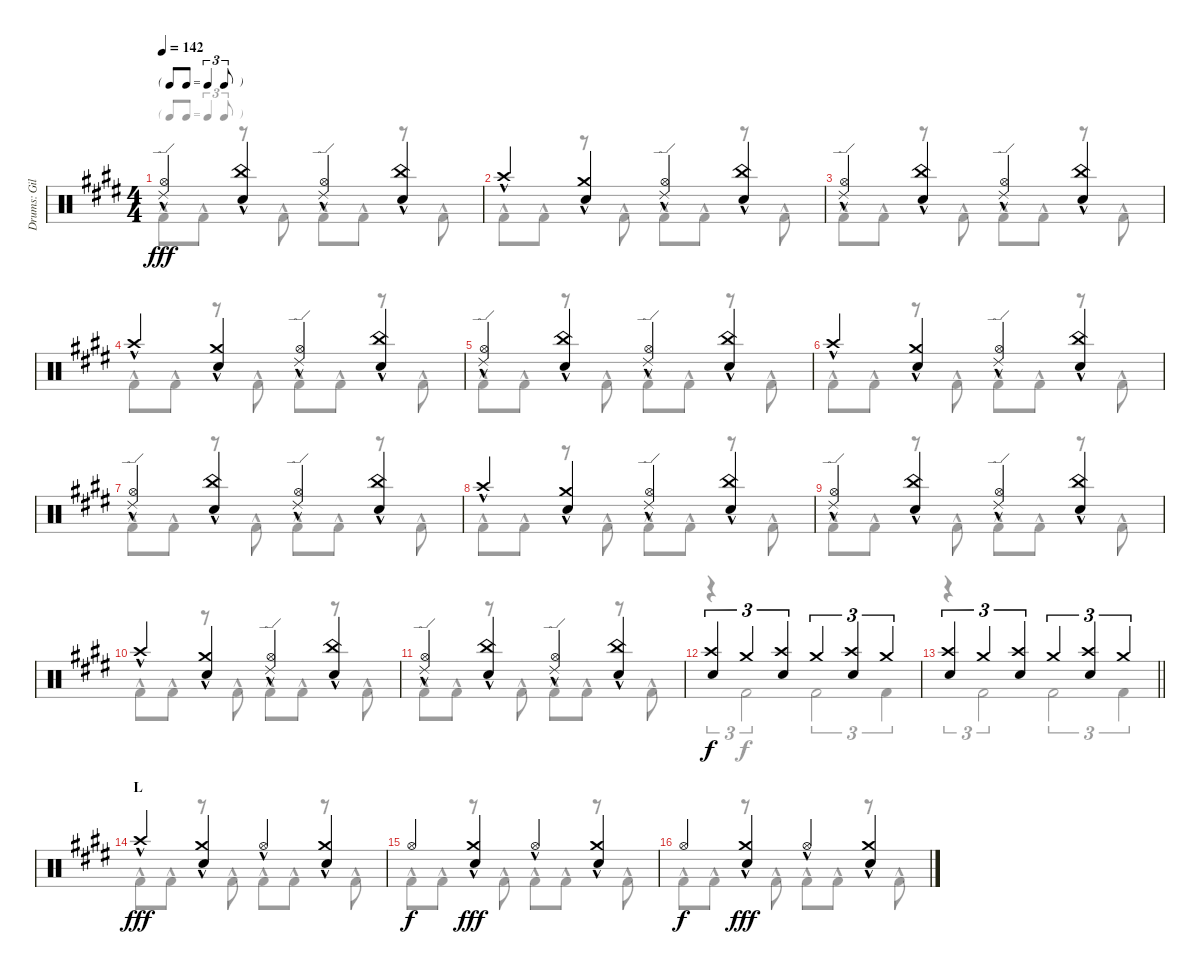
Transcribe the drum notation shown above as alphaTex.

\track ("Drums: Gil" "Drums: Gil") {instrument percussion}
\staff {score}
\articulation defaults
\voice
\ts (4 4)
\tf triplet8th
\tempo 142
\clef neutral
\ks e
("Ride (edge) 2"{hac} "Hi-Hat (open)"{hac}).4{dy fff} ("China (hit)"{hac} "Snare (hit) 2"{hac}).4 ("Ride (edge) 2"{hac} "Hi-Hat (open)"{hac}).4 ("China (hit)"{hac} "Snare (hit) 2"{hac}).4 |
"Crash high (hit)"{hac}.4 ("Crash medium (hit)"{hac} "Snare (hit) 2"{hac}).4 ("Ride (edge) 2"{hac} "Hi-Hat (open)"{hac}).4 ("China (hit)"{hac} "Snare (hit) 2"{hac}).4 |
("Ride (edge) 2"{hac} "Hi-Hat (open)"{hac}).4 ("China (hit)"{hac} "Snare (hit) 2"{hac}).4 ("Ride (edge) 2"{hac} "Hi-Hat (open)"{hac}).4 ("China (hit)"{hac} "Snare (hit) 2"{hac}).4 |
"Crash high (hit)"{hac}.4 ("Crash medium (hit)"{hac} "Snare (hit) 2"{hac}).4 ("Ride (edge) 2"{hac} "Hi-Hat (open)"{hac}).4 ("China (hit)"{hac} "Snare (hit) 2"{hac}).4 |
("Ride (edge) 2"{hac} "Hi-Hat (open)"{hac}).4 ("China (hit)"{hac} "Snare (hit) 2"{hac}).4 ("Ride (edge) 2"{hac} "Hi-Hat (open)"{hac}).4 ("China (hit)"{hac} "Snare (hit) 2"{hac}).4 |
"Crash high (hit)"{hac}.4 ("Crash medium (hit)"{hac} "Snare (hit) 2"{hac}).4 ("Ride (edge) 2"{hac} "Hi-Hat (open)"{hac}).4 ("China (hit)"{hac} "Snare (hit) 2"{hac}).4 |
("Ride (edge) 2"{hac} "Hi-Hat (open)"{hac}).4 ("China (hit)"{hac} "Snare (hit) 2"{hac}).4 ("Ride (edge) 2"{hac} "Hi-Hat (open)"{hac}).4 ("China (hit)"{hac} "Snare (hit) 2"{hac}).4 |
"Crash high (hit)"{hac}.4 ("Crash medium (hit)"{hac} "Snare (hit) 2"{hac}).4 ("Ride (edge) 2"{hac} "Hi-Hat (open)"{hac}).4 ("China (hit)"{hac} "Snare (hit) 2"{hac}).4 |
("Ride (edge) 2"{hac} "Hi-Hat (open)"{hac}).4 ("China (hit)"{hac} "Snare (hit) 2"{hac}).4 ("Ride (edge) 2"{hac} "Hi-Hat (open)"{hac}).4 ("China (hit)"{hac} "Snare (hit) 2"{hac}).4 |
"Crash high (hit)"{hac}.4 ("Crash medium (hit)"{hac} "Snare (hit) 2"{hac}).4 ("Ride (edge) 2"{hac} "Hi-Hat (open)"{hac}).4 ("China (hit)"{hac} "Snare (hit) 2"{hac}).4 |
("Ride (edge) 2"{hac} "Hi-Hat (open)"{hac}).4 ("China (hit)"{hac} "Snare (hit) 2"{hac}).4 ("Ride (edge) 2"{hac} "Hi-Hat (open)"{hac}).4 ("China (hit)"{hac} "Snare (hit) 2"{hac}).4 |
("Crash high (hit)" "Snare (hit) 2").4{tu (3 2) dy f} "Crash medium (hit)".4{tu (3 2) beam merge} ("Crash high (hit)" "Snare (hit) 2").4{tu (3 2)} "Crash medium (hit)".4{tu (3 2)} ("Crash high (hit)" "Snare (hit) 2").4{tu (3 2)} "Crash medium (hit)".4{tu (3 2)} |
\barLineRight lightlight
("Crash high (hit)" "Snare (hit) 2").4{tu (3 2)} "Crash medium (hit)".4{tu (3 2) beam merge} ("Crash high (hit)" "Snare (hit) 2").4{tu (3 2)} "Crash medium (hit)".4{tu (3 2)} ("Crash high (hit)" "Snare (hit) 2").4{tu (3 2)} "Crash medium (hit)".4{tu (3 2)} |
\section ("" "L")
"Crash high (hit)"{hac}.4{dy fff beam merge} ("Crash medium (hit)"{hac} "Snare (hit) 2"{hac}).4 "Hi-Hat (open)"{hac}.4{beam merge} ("Crash medium (hit)"{hac} "Snare (hit) 2"{hac}).4 |
"Hi-Hat (open)".4{dy f beam merge} ("Crash medium (hit)"{hac} "Snare (hit) 2"{hac}).4{dy fff} "Hi-Hat (open)"{hac}.4{beam merge} ("Crash medium (hit)"{hac} "Snare (hit) 2"{hac}).4 |
"Hi-Hat (open)".4{dy f beam merge} ("Crash medium (hit)"{hac} "Snare (hit) 2"{hac}).4{dy fff} "Hi-Hat (open)"{hac}.4{beam merge} ("Crash medium (hit)"{hac} "Snare (hit) 2"{hac}).4
\voice
\clef neutral
\ottava regular
\simile none
\ks e "Kick (hit) 2"{hac}.8{dy fff} "Kick (hit) 2"{hac}.8
r.8 "Kick (hit) 2"{hac}.8 "Kick (hit) 2"{hac}.8 "Kick (hit) 2"{hac}.8 r.8 "Kick (hit) 2"{hac}.8 |
"Kick (hit) 2"{hac}.8 "Kick (hit) 2"{hac}.8 r.8 "Kick (hit) 2"{hac}.8 "Kick (hit) 2"{hac}.8 "Kick (hit) 2"{hac}.8 r.8 "Kick (hit) 2"{hac}.8 |
"Kick (hit) 2"{hac}.8 "Kick (hit) 2"{hac}.8 r.8 "Kick (hit) 2"{hac}.8 "Kick (hit) 2"{hac}.8 "Kick (hit) 2"{hac}.8 r.8 "Kick (hit) 2"{hac}.8 |
"Kick (hit) 2"{hac}.8 "Kick (hit) 2"{hac}.8 r.8 "Kick (hit) 2"{hac}.8 "Kick (hit) 2"{hac}.8 "Kick (hit) 2"{hac}.8 r.8 "Kick (hit) 2"{hac}.8 |
"Kick (hit) 2"{hac}.8 "Kick (hit) 2"{hac}.8 r.8 "Kick (hit) 2"{hac}.8 "Kick (hit) 2"{hac}.8 "Kick (hit) 2"{hac}.8 r.8 "Kick (hit) 2"{hac}.8 |
"Kick (hit) 2"{hac}.8 "Kick (hit) 2"{hac}.8 r.8 "Kick (hit) 2"{hac}.8 "Kick (hit) 2"{hac}.8 "Kick (hit) 2"{hac}.8 r.8 "Kick (hit) 2"{hac}.8 |
"Kick (hit) 2"{hac}.8 "Kick (hit) 2"{hac}.8 r.8 "Kick (hit) 2"{hac}.8 "Kick (hit) 2"{hac}.8 "Kick (hit) 2"{hac}.8 r.8 "Kick (hit) 2"{hac}.8 |
"Kick (hit) 2"{hac}.8 "Kick (hit) 2"{hac}.8 r.8 "Kick (hit) 2"{hac}.8 "Kick (hit) 2"{hac}.8 "Kick (hit) 2"{hac}.8 r.8 "Kick (hit) 2"{hac}.8 |
"Kick (hit) 2"{hac}.8 "Kick (hit) 2"{hac}.8 r.8 "Kick (hit) 2"{hac}.8 "Kick (hit) 2"{hac}.8 "Kick (hit) 2"{hac}.8 r.8 "Kick (hit) 2"{hac}.8 |
"Kick (hit) 2"{hac}.8 "Kick (hit) 2"{hac}.8 r.8 "Kick (hit) 2"{hac}.8 "Kick (hit) 2"{hac}.8 "Kick (hit) 2"{hac}.8 r.8 "Kick (hit) 2"{hac}.8 |
"Kick (hit) 2"{hac}.8 "Kick (hit) 2"{hac}.8 r.8 "Kick (hit) 2"{hac}.8 "Kick (hit) 2"{hac}.8 "Kick (hit) 2"{hac}.8 r.8 "Kick (hit) 2"{hac}.8 |
r.4{tu (3 2)} "Kick (hit) 2".2{tu (3 2) dy f} "Kick (hit) 2".2{tu (3 2)} "Kick (hit) 2".4{tu (3 2)} |
\barLineRight lightlight
r.4{tu (3 2)} "Kick (hit) 2".2{tu (3 2)} "Kick (hit) 2".2{tu (3 2)} "Kick (hit) 2".4{tu (3 2)} |
"Kick (hit) 2"{hac}.8{dy fff} "Kick (hit) 2"{hac}.8 r.8 "Kick (hit) 2"{hac}.8 "Kick (hit) 2"{hac}.8 "Kick (hit) 2"{hac}.8 r.8 "Kick (hit) 2"{hac}.8 |
"Kick (hit) 2"{hac}.8 "Kick (hit) 2"{hac}.8 r.8 "Kick (hit) 2"{hac}.8 "Kick (hit) 2"{hac}.8 "Kick (hit) 2"{hac}.8 r.8 "Kick (hit) 2"{hac}.8 |
"Kick (hit) 2"{hac}.8 "Kick (hit) 2"{hac}.8 r.8 "Kick (hit) 2"{hac}.8 "Kick (hit) 2"{hac}.8 "Kick (hit) 2"{hac}.8 r.8 "Kick (hit) 2"{hac}.8
